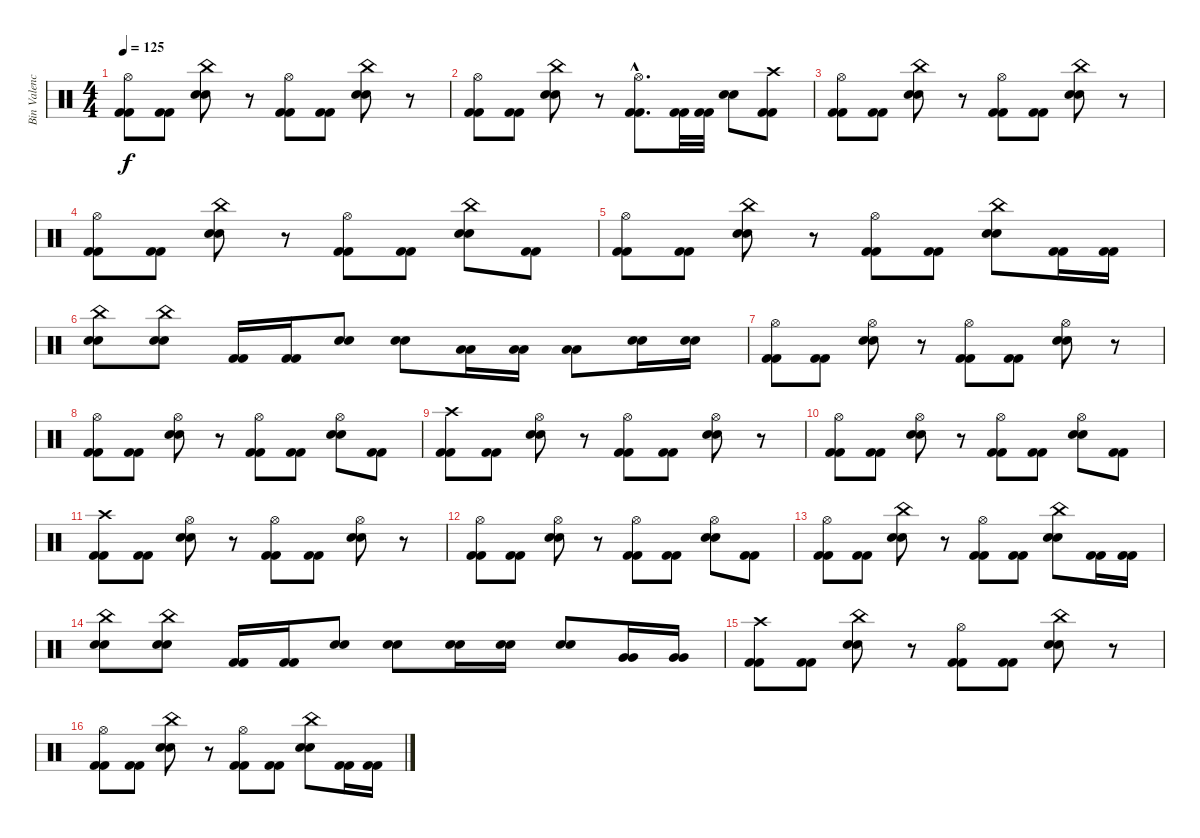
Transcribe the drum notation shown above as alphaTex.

\track ("Bin Valencia (Bateria)" "Bin Valenc") {instrument percussion}
\staff {score}
\articulation defaults
\ts (4 4)
\tempo 125
\clef neutral
\ks c
("Hi-Hat (open)" "Kick (hit) 2" "Kick (hit) 2").8{dy f} ("Kick (hit) 2" "Kick (hit) 2").8 ("China (hit)" "Snare (hit) 2" "Snare (hit) 2").8 r.8 ("Hi-Hat (open)" "Kick (hit) 2" "Kick (hit) 2").8 ("Kick (hit) 2" "Kick (hit) 2").8 ("China (hit)" "Snare (hit) 2" "Snare (hit) 2").8 r.8 |
("Hi-Hat (open)" "Kick (hit) 2" "Kick (hit) 2").8 ("Kick (hit) 2" "Kick (hit) 2").8 ("China (hit)" "Snare (hit) 2" "Snare (hit) 2").8 r.8 ("Hi-Hat (open)"{hac} "Kick (hit) 2"{hac} "Kick (hit) 2"{hac}).8{d} ("Kick (hit) 2" "Kick (hit) 2").32 ("Kick (hit) 2" "Kick (hit) 2").32 ("Snare (hit) 2" "Snare (hit) 2").8 ("Crash high (hit)" "Kick (hit) 2" "Kick (hit) 2").8 |
("Hi-Hat (open)" "Kick (hit) 2" "Kick (hit) 2").8 ("Kick (hit) 2" "Kick (hit) 2").8 ("China (hit)" "Snare (hit) 2" "Snare (hit) 2").8 r.8 ("Hi-Hat (open)" "Kick (hit) 2" "Kick (hit) 2").8 ("Kick (hit) 2" "Kick (hit) 2").8 ("China (hit)" "Snare (hit) 2" "Snare (hit) 2").8 r.8 |
("Hi-Hat (open)" "Kick (hit) 2" "Kick (hit) 2").8 ("Kick (hit) 2" "Kick (hit) 2").8 ("China (hit)" "Snare (hit) 2" "Snare (hit) 2").8 r.8 ("Hi-Hat (open)" "Kick (hit) 2" "Kick (hit) 2").8 ("Kick (hit) 2" "Kick (hit) 2").8 ("China (hit)" "Snare (hit) 2" "Snare (hit) 2").8 ("Kick (hit) 2" "Kick (hit) 2").8 |
("Hi-Hat (open)" "Kick (hit) 2" "Kick (hit) 2").8 ("Kick (hit) 2" "Kick (hit) 2").8 ("China (hit)" "Snare (hit) 2" "Snare (hit) 2").8 r.8 ("Hi-Hat (open)" "Kick (hit) 2" "Kick (hit) 2").8 ("Kick (hit) 2" "Kick (hit) 2").8 ("China (hit)" "Snare (hit) 2" "Snare (hit) 2").8 ("Kick (hit) 2" "Kick (hit) 2").16 ("Kick (hit) 2" "Kick (hit) 2").16 |
("China (hit)" "Snare (hit) 2" "Snare (hit) 2").8 ("China (hit)" "Snare (hit) 2" "Snare (hit) 2").8 ("Kick (hit) 2" "Kick (hit) 2").16 ("Kick (hit) 2" "Kick (hit) 2").16 ("Snare (hit) 2" "Snare (hit) 2").8 ("Snare (hit) 2" "Snare (hit) 2").8 ("Low Tom (hit)" "Low Tom (hit)").16 ("Low Tom (hit)" "Low Tom (hit)").16 ("Low Tom (hit)" "Low Tom (hit)").8 ("Snare (hit) 2" "Snare (hit) 2").16 ("Snare (hit) 2" "Snare (hit) 2").16 |
("Hi-Hat (open)" "Kick (hit) 2" "Kick (hit) 2").8 ("Kick (hit) 2" "Kick (hit) 2").8 ("Hi-Hat (open)" "Snare (hit) 2" "Snare (hit) 2").8 r.8 ("Hi-Hat (open)" "Kick (hit) 2" "Kick (hit) 2").8 ("Kick (hit) 2" "Kick (hit) 2").8 ("Hi-Hat (open)" "Snare (hit) 2" "Snare (hit) 2").8 r.8 |
("Hi-Hat (open)" "Kick (hit) 2" "Kick (hit) 2").8 ("Kick (hit) 2" "Kick (hit) 2").8 ("Hi-Hat (open)" "Snare (hit) 2" "Snare (hit) 2").8 r.8 ("Hi-Hat (open)" "Kick (hit) 2" "Kick (hit) 2").8 ("Kick (hit) 2" "Kick (hit) 2").8 ("Hi-Hat (open)" "Snare (hit) 2" "Snare (hit) 2").8 ("Kick (hit) 2" "Kick (hit) 2").8 |
("Crash high (hit)" "Kick (hit) 2" "Kick (hit) 2").8 ("Kick (hit) 2" "Kick (hit) 2").8 ("Hi-Hat (open)" "Snare (hit) 2" "Snare (hit) 2").8 r.8 ("Hi-Hat (open)" "Kick (hit) 2" "Kick (hit) 2").8 ("Kick (hit) 2" "Kick (hit) 2").8 ("Hi-Hat (open)" "Snare (hit) 2" "Snare (hit) 2").8 r.8 |
("Hi-Hat (open)" "Kick (hit) 2" "Kick (hit) 2").8 ("Kick (hit) 2" "Kick (hit) 2").8 ("Hi-Hat (open)" "Snare (hit) 2" "Snare (hit) 2").8 r.8 ("Hi-Hat (open)" "Kick (hit) 2" "Kick (hit) 2").8 ("Kick (hit) 2" "Kick (hit) 2").8 ("Hi-Hat (open)" "Snare (hit) 2" "Snare (hit) 2").8 ("Kick (hit) 2" "Kick (hit) 2").8 |
("Crash high (hit)" "Kick (hit) 2" "Kick (hit) 2").8 ("Kick (hit) 2" "Kick (hit) 2").8 ("Hi-Hat (open)" "Snare (hit) 2" "Snare (hit) 2").8 r.8 ("Hi-Hat (open)" "Kick (hit) 2" "Kick (hit) 2").8 ("Kick (hit) 2" "Kick (hit) 2").8 ("Hi-Hat (open)" "Snare (hit) 2" "Snare (hit) 2").8 r.8 |
("Hi-Hat (open)" "Kick (hit) 2" "Kick (hit) 2").8 ("Kick (hit) 2" "Kick (hit) 2").8 ("Hi-Hat (open)" "Snare (hit) 2" "Snare (hit) 2").8 r.8 ("Hi-Hat (open)" "Kick (hit) 2" "Kick (hit) 2").8 ("Kick (hit) 2" "Kick (hit) 2").8 ("Hi-Hat (open)" "Snare (hit) 2" "Snare (hit) 2").8 ("Kick (hit) 2" "Kick (hit) 2").8 |
("Hi-Hat (open)" "Kick (hit) 2" "Kick (hit) 2").8 ("Kick (hit) 2" "Kick (hit) 2").8 ("China (hit)" "Snare (hit) 2" "Snare (hit) 2").8 r.8 ("Hi-Hat (open)" "Kick (hit) 2" "Kick (hit) 2").8 ("Kick (hit) 2" "Kick (hit) 2").8 ("China (hit)" "Snare (hit) 2" "Snare (hit) 2").8 ("Kick (hit) 2" "Kick (hit) 2").16 ("Kick (hit) 2" "Kick (hit) 2").16 |
("China (hit)" "Snare (hit) 2" "Snare (hit) 2").8 ("China (hit)" "Snare (hit) 2" "Snare (hit) 2").8 ("Kick (hit) 2" "Kick (hit) 2").16 ("Kick (hit) 2" "Kick (hit) 2").16 ("Snare (hit) 2" "Snare (hit) 2").8 ("Snare (hit) 2" "Snare (hit) 2").8 ("Snare (hit) 2" "Snare (hit) 2").16 ("Snare (hit) 2" "Snare (hit) 2").16 ("Snare (hit) 2" "Snare (hit) 2").8 ("Very Low Tom (hit)" "Very Low Tom (hit)").16 ("Very Low Tom (hit)" "Very Low Tom (hit)").16 |
("Crash high (hit)" "Kick (hit) 2" "Kick (hit) 2").8 ("Kick (hit) 2" "Kick (hit) 2").8 ("China (hit)" "Snare (hit) 2" "Snare (hit) 2").8 r.8 ("Hi-Hat (open)" "Kick (hit) 2" "Kick (hit) 2").8 ("Kick (hit) 2" "Kick (hit) 2").8 ("China (hit)" "Snare (hit) 2" "Snare (hit) 2").8 r.8 |
("Hi-Hat (open)" "Kick (hit) 2" "Kick (hit) 2").8 ("Kick (hit) 2" "Kick (hit) 2").8 ("China (hit)" "Snare (hit) 2" "Snare (hit) 2").8 r.8 ("Hi-Hat (open)" "Kick (hit) 2" "Kick (hit) 2").8 ("Kick (hit) 2" "Kick (hit) 2").8 ("China (hit)" "Snare (hit) 2" "Snare (hit) 2").8 ("Kick (hit) 2" "Kick (hit) 2").16 ("Kick (hit) 2" "Kick (hit) 2").16
